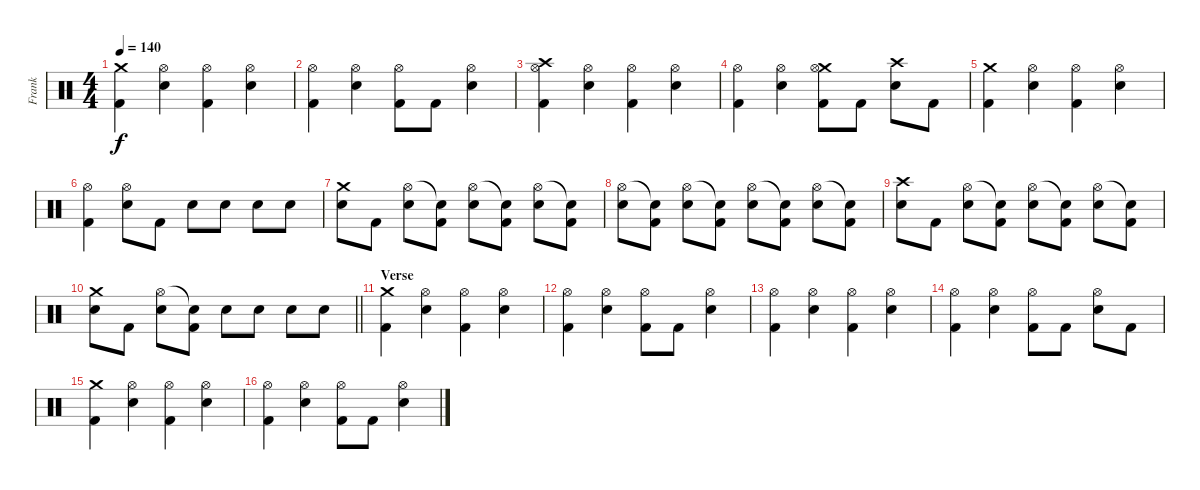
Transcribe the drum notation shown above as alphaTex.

\track ("Frank" "Frank") {instrument percussion}
\staff {score}
\articulation defaults
\ts (4 4)
\tempo 140
\clef neutral
\ks c
("Crash medium (hit)" "Kick (hit) 2").4{dy f} ("Hi-Hat (open)" "Snare (hit) 2").4 ("Hi-Hat (open)" "Kick (hit) 2").4 ("Hi-Hat (open)" "Snare (hit) 2").4 |
("Hi-Hat (open)" "Kick (hit) 2").4 ("Hi-Hat (open)" "Snare (hit) 2").4 ("Hi-Hat (open)" "Kick (hit) 2").8 "Kick (hit) 2".8 ("Hi-Hat (open)" "Snare (hit) 2").4 |
("Crash high (hit)" "Hi-Hat (open)" "Kick (hit) 2").4 ("Hi-Hat (open)" "Snare (hit) 2").4 ("Hi-Hat (open)" "Kick (hit) 2").4 ("Hi-Hat (open)" "Snare (hit) 2").4 |
("Hi-Hat (open)" "Kick (hit) 2").4 ("Hi-Hat (open)" "Snare (hit) 2").4 ("Crash medium (hit)" "Hi-Hat (open)" "Kick (hit) 2").8 "Kick (hit) 2".8 ("Crash high (hit)" "Snare (hit) 2").8 "Kick (hit) 2".8 |
("Crash medium (hit)" "Kick (hit) 2").4 ("Hi-Hat (open)" "Snare (hit) 2").4 ("Hi-Hat (open)" "Kick (hit) 2").4 ("Hi-Hat (open)" "Snare (hit) 2").4 |
("Hi-Hat (open)" "Kick (hit) 2").4 ("Hi-Hat (open)" "Snare (hit) 2").8 "Kick (hit) 2".8 "Snare (hit) 2".8 "Snare (hit) 2".8 "Snare (hit) 2".8 "Snare (hit) 2".8 |
("Crash medium (hit)" "Snare (hit) 2").8 "Kick (hit) 2".8 ("Hi-Hat (open)" "Snare (hit) 2").8 ("Snare (hit)"{t} "Kick (hit) 2").8 ("Hi-Hat (open)" "Snare (hit) 2").8 ("Snare (hit)"{t} "Kick (hit) 2").8 ("Hi-Hat (open)" "Snare (hit) 2").8 ("Snare (hit)"{t} "Kick (hit) 2").8 |
("Hi-Hat (open)" "Snare (hit) 2").8 ("Snare (hit)"{t} "Kick (hit) 2").8 ("Hi-Hat (open)" "Snare (hit) 2").8 ("Snare (hit)"{t} "Kick (hit) 2").8 ("Hi-Hat (open)" "Snare (hit) 2").8 ("Snare (hit)"{t} "Kick (hit) 2").8 ("Hi-Hat (open)" "Snare (hit) 2").8 ("Snare (hit)"{t} "Kick (hit) 2").8 |
("Crash high (hit)" "Snare (hit) 2").8 "Kick (hit) 2".8 ("Hi-Hat (open)" "Snare (hit) 2").8 ("Snare (hit)"{t} "Kick (hit) 2").8 ("Hi-Hat (open)" "Snare (hit) 2").8 ("Snare (hit)"{t} "Kick (hit) 2").8 ("Hi-Hat (open)" "Snare (hit) 2").8 ("Snare (hit)"{t} "Kick (hit) 2").8 |
\barLineRight lightlight
("Crash medium (hit)" "Snare (hit) 2").8 "Kick (hit) 2".8 ("Hi-Hat (open)" "Snare (hit) 2").8 ("Snare (hit)"{t} "Kick (hit) 2").8 "Snare (hit) 2".8 "Snare (hit) 2".8 "Snare (hit) 2".8 "Snare (hit) 2".8 |
\section ("" "Verse")
("Crash medium (hit)" "Kick (hit) 2").4 ("Hi-Hat (open)" "Snare (hit) 2").4 ("Hi-Hat (open)" "Kick (hit) 2").4 ("Hi-Hat (open)" "Snare (hit) 2").4 |
("Hi-Hat (open)" "Kick (hit) 2").4 ("Hi-Hat (open)" "Snare (hit) 2").4 ("Hi-Hat (open)" "Kick (hit) 2").8 "Kick (hit) 2".8 ("Hi-Hat (open)" "Snare (hit) 2").4 |
("Hi-Hat (open)" "Kick (hit) 2").4 ("Hi-Hat (open)" "Snare (hit) 2").4 ("Hi-Hat (open)" "Kick (hit) 2").4 ("Hi-Hat (open)" "Snare (hit) 2").4 |
("Hi-Hat (open)" "Kick (hit) 2").4 ("Hi-Hat (open)" "Snare (hit) 2").4 ("Hi-Hat (open)" "Kick (hit) 2").8 "Kick (hit) 2".8 ("Hi-Hat (open)" "Snare (hit) 2").8 "Kick (hit) 2".8 |
("Crash medium (hit)" "Kick (hit) 2").4 ("Hi-Hat (open)" "Snare (hit) 2").4 ("Hi-Hat (open)" "Kick (hit) 2").4 ("Hi-Hat (open)" "Snare (hit) 2").4 |
("Hi-Hat (open)" "Kick (hit) 2").4 ("Hi-Hat (open)" "Snare (hit) 2").4 ("Hi-Hat (open)" "Kick (hit) 2").8 "Kick (hit) 2".8 ("Hi-Hat (open)" "Snare (hit) 2").4
